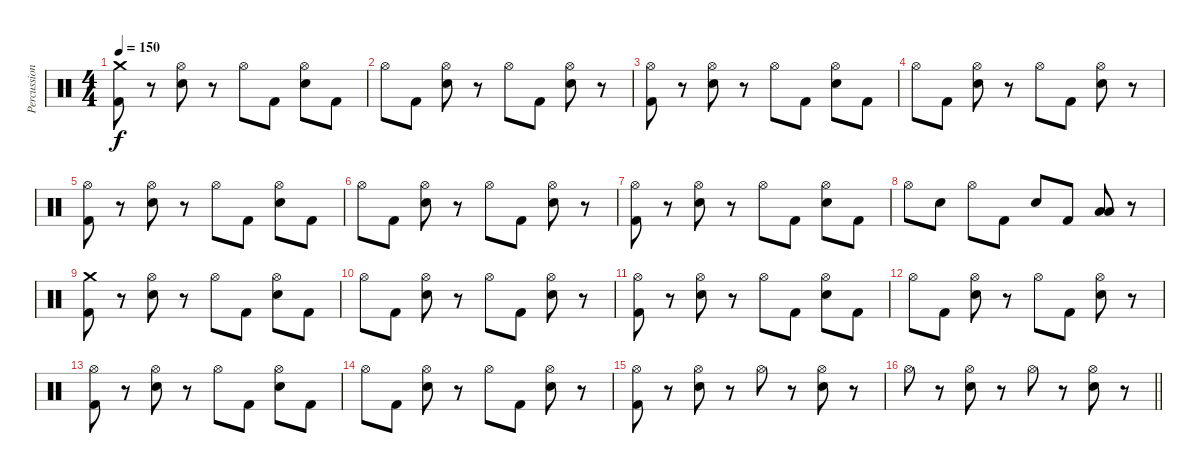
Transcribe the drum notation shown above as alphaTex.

\track ("Percussion" "Percussion") {instrument percussion}
\staff {score}
\articulation defaults
\ts (4 4)
\tempo 150
\clef neutral
\ks c
("Crash medium (hit)" "Kick (hit) 2").8{dy f} r.8 ("Hi-Hat (open)" "Electric Snare (hit)").8 r.8 "Hi-Hat (open)".8 "Kick (hit) 2".8 ("Hi-Hat (open)" "Electric Snare (hit)").8 "Kick (hit) 2".8 |
"Hi-Hat (open)".8 "Kick (hit) 2".8 ("Hi-Hat (open)" "Electric Snare (hit)").8 r.8 "Hi-Hat (open)".8 "Kick (hit) 2".8 ("Hi-Hat (open)" "Electric Snare (hit)").8 r.8 |
("Hi-Hat (open)" "Kick (hit) 2").8 r.8 ("Hi-Hat (open)" "Electric Snare (hit)").8 r.8 "Hi-Hat (open)".8 "Kick (hit) 2".8 ("Hi-Hat (open)" "Electric Snare (hit)").8 "Kick (hit) 2".8 |
"Hi-Hat (open)".8 "Kick (hit) 2".8 ("Hi-Hat (open)" "Electric Snare (hit)").8 r.8 "Hi-Hat (open)".8 "Kick (hit) 2".8 ("Hi-Hat (open)" "Electric Snare (hit)").8 r.8 |
("Hi-Hat (open)" "Kick (hit) 2").8 r.8 ("Hi-Hat (open)" "Electric Snare (hit)").8 r.8 "Hi-Hat (open)".8 "Kick (hit) 2".8 ("Hi-Hat (open)" "Electric Snare (hit)").8 "Kick (hit) 2".8 |
"Hi-Hat (open)".8 "Kick (hit) 2".8 ("Hi-Hat (open)" "Electric Snare (hit)").8 r.8 "Hi-Hat (open)".8 "Kick (hit) 2".8 ("Hi-Hat (open)" "Electric Snare (hit)").8 r.8 |
("Hi-Hat (open)" "Kick (hit) 2").8 r.8 ("Hi-Hat (open)" "Electric Snare (hit)").8 r.8 "Hi-Hat (open)".8 "Kick (hit) 2".8 ("Hi-Hat (open)" "Electric Snare (hit)").8 "Kick (hit) 2".8 |
"Hi-Hat (open)".8 "Electric Snare (hit)".8 "Hi-Hat (open)".8 "Kick (hit) 2".8 "Electric Snare (hit)".8 "Kick (hit) 2".8 ("Low Tom (hit)" "Low Tom (hit)").8 r.8 |
("Crash medium (hit)" "Kick (hit) 2").8 r.8 ("Hi-Hat (open)" "Electric Snare (hit)").8 r.8 "Hi-Hat (open)".8 "Kick (hit) 2".8 ("Hi-Hat (open)" "Electric Snare (hit)").8 "Kick (hit) 2".8 |
"Hi-Hat (open)".8 "Kick (hit) 2".8 ("Hi-Hat (open)" "Electric Snare (hit)").8 r.8 "Hi-Hat (open)".8 "Kick (hit) 2".8 ("Hi-Hat (open)" "Electric Snare (hit)").8 r.8 |
("Hi-Hat (open)" "Kick (hit) 2").8 r.8 ("Hi-Hat (open)" "Electric Snare (hit)").8 r.8 "Hi-Hat (open)".8 "Kick (hit) 2".8 ("Hi-Hat (open)" "Electric Snare (hit)").8 "Kick (hit) 2".8 |
"Hi-Hat (open)".8 "Kick (hit) 2".8 ("Hi-Hat (open)" "Electric Snare (hit)").8 r.8 "Hi-Hat (open)".8 "Kick (hit) 2".8 ("Hi-Hat (open)" "Electric Snare (hit)").8 r.8 |
("Hi-Hat (open)" "Kick (hit) 2").8 r.8 ("Hi-Hat (open)" "Electric Snare (hit)").8 r.8 "Hi-Hat (open)".8 "Kick (hit) 2".8 ("Hi-Hat (open)" "Electric Snare (hit)").8 "Kick (hit) 2".8 |
"Hi-Hat (open)".8 "Kick (hit) 2".8 ("Hi-Hat (open)" "Electric Snare (hit)").8 r.8 "Hi-Hat (open)".8 "Kick (hit) 2".8 ("Hi-Hat (open)" "Electric Snare (hit)").8 r.8 |
("Hi-Hat (open)" "Kick (hit) 2").8 r.8 ("Hi-Hat (open)" "Electric Snare (hit)").8 r.8 "Hi-Hat (open)".8 r.8 ("Hi-Hat (open)" "Electric Snare (hit)").8 r.8 |
\barLineRight lightlight "Hi-Hat (open)".8
r.8 ("Hi-Hat (open)" "Electric Snare (hit)").8 r.8 "Hi-Hat (open)".8 r.8 ("Hi-Hat (open)" "Electric Snare (hit)").8 r.8
